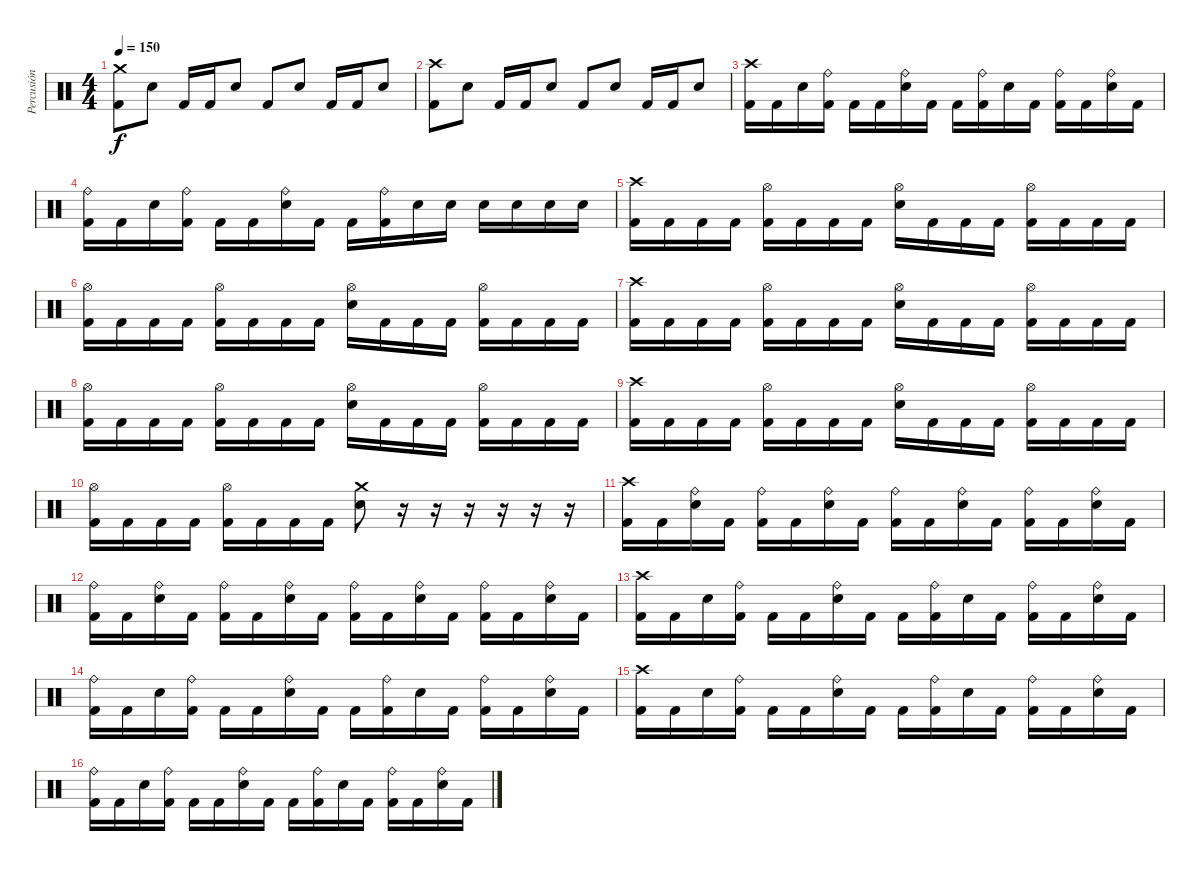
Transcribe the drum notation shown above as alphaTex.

\track ("Percusión" "Percusión") {instrument percussion}
\staff {score}
\articulation defaults
\ts (4 4)
\tempo 150
\clef neutral
\ks c
("Crash medium (hit)" "Kick (hit) 2").8{dy f} "Electric Snare (hit)".8 "Kick (hit) 2".16 "Kick (hit) 2".16 "Electric Snare (hit)".8 "Kick (hit) 2".8 "Electric Snare (hit)".8 "Kick (hit) 2".16 "Kick (hit) 2".16 "Electric Snare (hit)".8 |
("Crash high (hit)" "Kick (hit) 2").8 "Electric Snare (hit)".8 "Kick (hit) 2".16 "Kick (hit) 2".16 "Electric Snare (hit)".8 "Kick (hit) 2".8 "Electric Snare (hit)".8 "Kick (hit) 2".16 "Kick (hit) 2".16 "Electric Snare (hit)".8 |
("Crash high (hit)" "Kick (hit) 2").16 "Kick (hit) 2".16 "Electric Snare (hit)".16 ("Ride (bell)" "Kick (hit) 2").16 "Kick (hit) 2".16 "Kick (hit) 2".16 ("Ride (bell)" "Electric Snare (hit)").16 "Kick (hit) 2".16 "Kick (hit) 2".16 ("Ride (bell)" "Kick (hit) 2").16 "Electric Snare (hit)".16 "Kick (hit) 2".16 ("Ride (bell)" "Kick (hit) 2").16 "Kick (hit) 2".16 ("Ride (bell)" "Electric Snare (hit)").16 "Kick (hit) 2".16 |
("Ride (bell)" "Kick (hit) 2").16 "Kick (hit) 2".16 "Electric Snare (hit)".16 ("Ride (bell)" "Kick (hit) 2").16 "Kick (hit) 2".16 "Kick (hit) 2".16 ("Ride (bell)" "Electric Snare (hit)").16 "Kick (hit) 2".16 "Kick (hit) 2".16 ("Ride (bell)" "Kick (hit) 2").16 "Electric Snare (hit)".16 "Electric Snare (hit)".16 "Electric Snare (hit)".16 "Electric Snare (hit)".16 "Electric Snare (hit)".16 "Electric Snare (hit)".16 |
("Crash high (hit)" "Kick (hit) 2").16 "Kick (hit) 2".16 "Kick (hit) 2".16 "Kick (hit) 2".16 ("Hi-Hat (open)" "Kick (hit) 2").16 "Kick (hit) 2".16 "Kick (hit) 2".16 "Kick (hit) 2".16 ("Hi-Hat (open)" "Electric Snare (hit)").16 "Kick (hit) 2".16 "Kick (hit) 2".16 "Kick (hit) 2".16 ("Hi-Hat (open)" "Kick (hit) 2").16 "Kick (hit) 2".16 "Kick (hit) 2".16 "Kick (hit) 2".16 |
("Hi-Hat (open)" "Kick (hit) 2").16 "Kick (hit) 2".16 "Kick (hit) 2".16 "Kick (hit) 2".16 ("Hi-Hat (open)" "Kick (hit) 2").16 "Kick (hit) 2".16 "Kick (hit) 2".16 "Kick (hit) 2".16 ("Hi-Hat (open)" "Electric Snare (hit)").16 "Kick (hit) 2".16 "Kick (hit) 2".16 "Kick (hit) 2".16 ("Hi-Hat (open)" "Kick (hit) 2").16 "Kick (hit) 2".16 "Kick (hit) 2".16 "Kick (hit) 2".16 |
("Crash high (hit)" "Kick (hit) 2").16 "Kick (hit) 2".16 "Kick (hit) 2".16 "Kick (hit) 2".16 ("Hi-Hat (open)" "Kick (hit) 2").16 "Kick (hit) 2".16 "Kick (hit) 2".16 "Kick (hit) 2".16 ("Hi-Hat (open)" "Electric Snare (hit)").16 "Kick (hit) 2".16 "Kick (hit) 2".16 "Kick (hit) 2".16 ("Hi-Hat (open)" "Kick (hit) 2").16 "Kick (hit) 2".16 "Kick (hit) 2".16 "Kick (hit) 2".16 |
("Hi-Hat (open)" "Kick (hit) 2").16 "Kick (hit) 2".16 "Kick (hit) 2".16 "Kick (hit) 2".16 ("Hi-Hat (open)" "Kick (hit) 2").16 "Kick (hit) 2".16 "Kick (hit) 2".16 "Kick (hit) 2".16 ("Hi-Hat (open)" "Electric Snare (hit)").16 "Kick (hit) 2".16 "Kick (hit) 2".16 "Kick (hit) 2".16 ("Hi-Hat (open)" "Kick (hit) 2").16 "Kick (hit) 2".16 "Kick (hit) 2".16 "Kick (hit) 2".16 |
("Crash high (hit)" "Kick (hit) 2").16 "Kick (hit) 2".16 "Kick (hit) 2".16 "Kick (hit) 2".16 ("Hi-Hat (open)" "Kick (hit) 2").16 "Kick (hit) 2".16 "Kick (hit) 2".16 "Kick (hit) 2".16 ("Hi-Hat (open)" "Electric Snare (hit)").16 "Kick (hit) 2".16 "Kick (hit) 2".16 "Kick (hit) 2".16 ("Hi-Hat (open)" "Kick (hit) 2").16 "Kick (hit) 2".16 "Kick (hit) 2".16 "Kick (hit) 2".16 |
("Hi-Hat (open)" "Kick (hit) 2").16 "Kick (hit) 2".16 "Kick (hit) 2".16 "Kick (hit) 2".16 ("Hi-Hat (open)" "Kick (hit) 2").16 "Kick (hit) 2".16 "Kick (hit) 2".16 "Kick (hit) 2".16 ("Crash medium (hit)" "Electric Snare (hit)").8 r.16 r.16 r.16 r.16 r.16 r.16 |
("Crash high (hit)" "Kick (hit) 2").16 "Kick (hit) 2".16 ("Ride (bell)" "Electric Snare (hit)").16 "Kick (hit) 2".16 ("Ride (bell)" "Kick (hit) 2").16 "Kick (hit) 2".16 ("Ride (bell)" "Electric Snare (hit)").16 "Kick (hit) 2".16 ("Ride (bell)" "Kick (hit) 2").16 "Kick (hit) 2".16 ("Ride (bell)" "Electric Snare (hit)").16 "Kick (hit) 2".16 ("Ride (bell)" "Kick (hit) 2").16 "Kick (hit) 2".16 ("Ride (bell)" "Electric Snare (hit)").16 "Kick (hit) 2".16 |
("Ride (bell)" "Kick (hit) 2").16 "Kick (hit) 2".16 ("Ride (bell)" "Electric Snare (hit)").16 "Kick (hit) 2".16 ("Ride (bell)" "Kick (hit) 2").16 "Kick (hit) 2".16 ("Ride (bell)" "Electric Snare (hit)").16 "Kick (hit) 2".16 ("Ride (bell)" "Kick (hit) 2").16 "Kick (hit) 2".16 ("Ride (bell)" "Electric Snare (hit)").16 "Kick (hit) 2".16 ("Ride (bell)" "Kick (hit) 2").16 "Kick (hit) 2".16 ("Ride (bell)" "Electric Snare (hit)").16 "Kick (hit) 2".16 |
("Crash high (hit)" "Kick (hit) 2").16 "Kick (hit) 2".16 "Electric Snare (hit)".16 ("Ride (bell)" "Kick (hit) 2").16 "Kick (hit) 2".16 "Kick (hit) 2".16 ("Ride (bell)" "Electric Snare (hit)").16 "Kick (hit) 2".16 "Kick (hit) 2".16 ("Ride (bell)" "Kick (hit) 2").16 "Electric Snare (hit)".16 "Kick (hit) 2".16 ("Ride (bell)" "Kick (hit) 2").16 "Kick (hit) 2".16 ("Ride (bell)" "Electric Snare (hit)").16 "Kick (hit) 2".16 |
("Ride (bell)" "Kick (hit) 2").16 "Kick (hit) 2".16 "Electric Snare (hit)".16 ("Ride (bell)" "Kick (hit) 2").16 "Kick (hit) 2".16 "Kick (hit) 2".16 ("Ride (bell)" "Electric Snare (hit)").16 "Kick (hit) 2".16 "Kick (hit) 2".16 ("Ride (bell)" "Kick (hit) 2").16 "Electric Snare (hit)".16 "Kick (hit) 2".16 ("Ride (bell)" "Kick (hit) 2").16 "Kick (hit) 2".16 ("Ride (bell)" "Electric Snare (hit)").16 "Kick (hit) 2".16 |
("Crash high (hit)" "Kick (hit) 2").16 "Kick (hit) 2".16 "Electric Snare (hit)".16 ("Ride (bell)" "Kick (hit) 2").16 "Kick (hit) 2".16 "Kick (hit) 2".16 ("Ride (bell)" "Electric Snare (hit)").16 "Kick (hit) 2".16 "Kick (hit) 2".16 ("Ride (bell)" "Kick (hit) 2").16 "Electric Snare (hit)".16 "Kick (hit) 2".16 ("Ride (bell)" "Kick (hit) 2").16 "Kick (hit) 2".16 ("Ride (bell)" "Electric Snare (hit)").16 "Kick (hit) 2".16 |
("Ride (bell)" "Kick (hit) 2").16 "Kick (hit) 2".16 "Electric Snare (hit)".16 ("Ride (bell)" "Kick (hit) 2").16 "Kick (hit) 2".16 "Kick (hit) 2".16 ("Ride (bell)" "Electric Snare (hit)").16 "Kick (hit) 2".16 "Kick (hit) 2".16 ("Ride (bell)" "Kick (hit) 2").16 "Electric Snare (hit)".16 "Kick (hit) 2".16 ("Ride (bell)" "Kick (hit) 2").16 "Kick (hit) 2".16 ("Ride (bell)" "Electric Snare (hit)").16 "Kick (hit) 2".16
